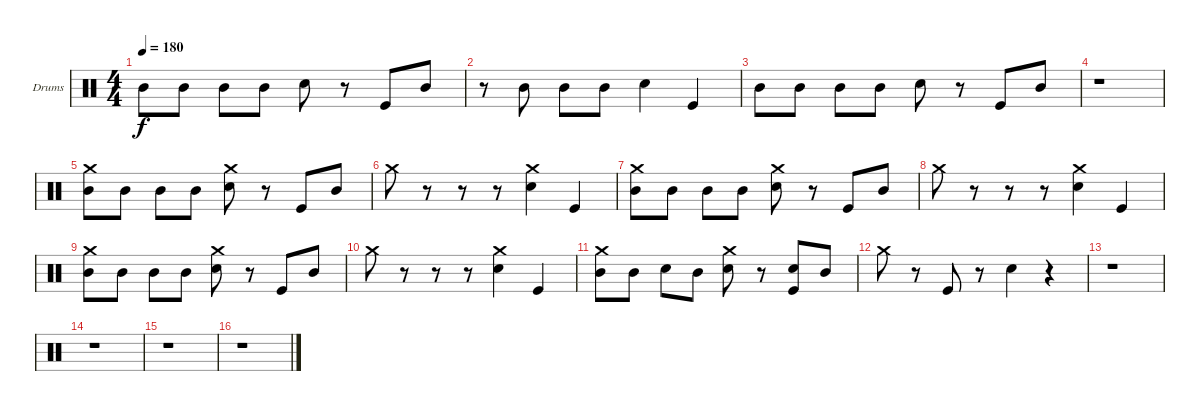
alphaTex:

\defaultSystemsLayout 4
\bracketExtendMode groupsimilarinstruments
\firstSystemTrackNameOrientation horizontal
\otherSystemsTrackNameOrientation horizontal
\track ("Drumkit" "Drums") {instrument percussion}
\staff {score}
\articulation defaults
\ts (4 4)
\tempo 180
\clef neutral
\ks c "Mid Tom (hit)".8{dy f} "Mid Tom (hit)".8 "Mid Tom (hit)".8 "Mid Tom (hit)".8 "Snare (hit) 2".8
r.8 "Kick (hit)".8 "Mid Tom (hit)".8 |
r.8 "Mid Tom (hit)".8 "Mid Tom (hit)".8 "Mid Tom (hit)".8 "Snare (hit) 2".4 "Kick (hit)".4 |
"Mid Tom (hit)".8 "Mid Tom (hit)".8 "Mid Tom (hit)".8 "Mid Tom (hit)".8 "Snare (hit) 2".8 r.8 "Kick (hit)".8 "Mid Tom (hit)".8 |
r.1 |
("Crash medium (hit)" "Mid Tom (hit)").8 "Mid Tom (hit)".8 "Mid Tom (hit)".8 "Mid Tom (hit)".8 ("Crash medium (hit)" "Snare (hit) 2").8 r.8 "Kick (hit)".8 "Mid Tom (hit)".8 |
"Crash medium (hit)".8 r.8 r.8 r.8 ("Crash medium (hit)" "Snare (hit) 2").4 "Kick (hit)".4 |
("Crash medium (hit)" "Mid Tom (hit)").8 "Mid Tom (hit)".8 "Mid Tom (hit)".8 "Mid Tom (hit)".8 ("Crash medium (hit)" "Snare (hit) 2").8 r.8 "Kick (hit)".8 "Mid Tom (hit)".8 |
"Crash medium (hit)".8 r.8 r.8 r.8 ("Crash medium (hit)" "Snare (hit) 2").4 "Kick (hit)".4 |
("Crash medium (hit)" "Mid Tom (hit)").8 "Mid Tom (hit)".8 "Mid Tom (hit)".8 "Mid Tom (hit)".8 ("Crash medium (hit)" "Snare (hit) 2").8 r.8 "Kick (hit)".8 "Mid Tom (hit)".8 |
"Crash medium (hit)".8 r.8 r.8 r.8 ("Crash medium (hit)" "Snare (hit) 2").4 "Kick (hit)".4 |
("Crash medium (hit)" "Mid Tom (hit)").8 "Mid Tom (hit)".8 "Snare (hit) 2".8 "Mid Tom (hit)".8 ("Crash medium (hit)" "Snare (hit) 2").8 r.8 ("Snare (hit) 2" "Kick (hit)").8 "Mid Tom (hit)".8 |
"Crash medium (hit)".8 r.8 "Kick (hit)".8 r.8 "Snare (hit) 2".4 r.4 |
r.1 |
r.1 |
r.1 |
r.1
